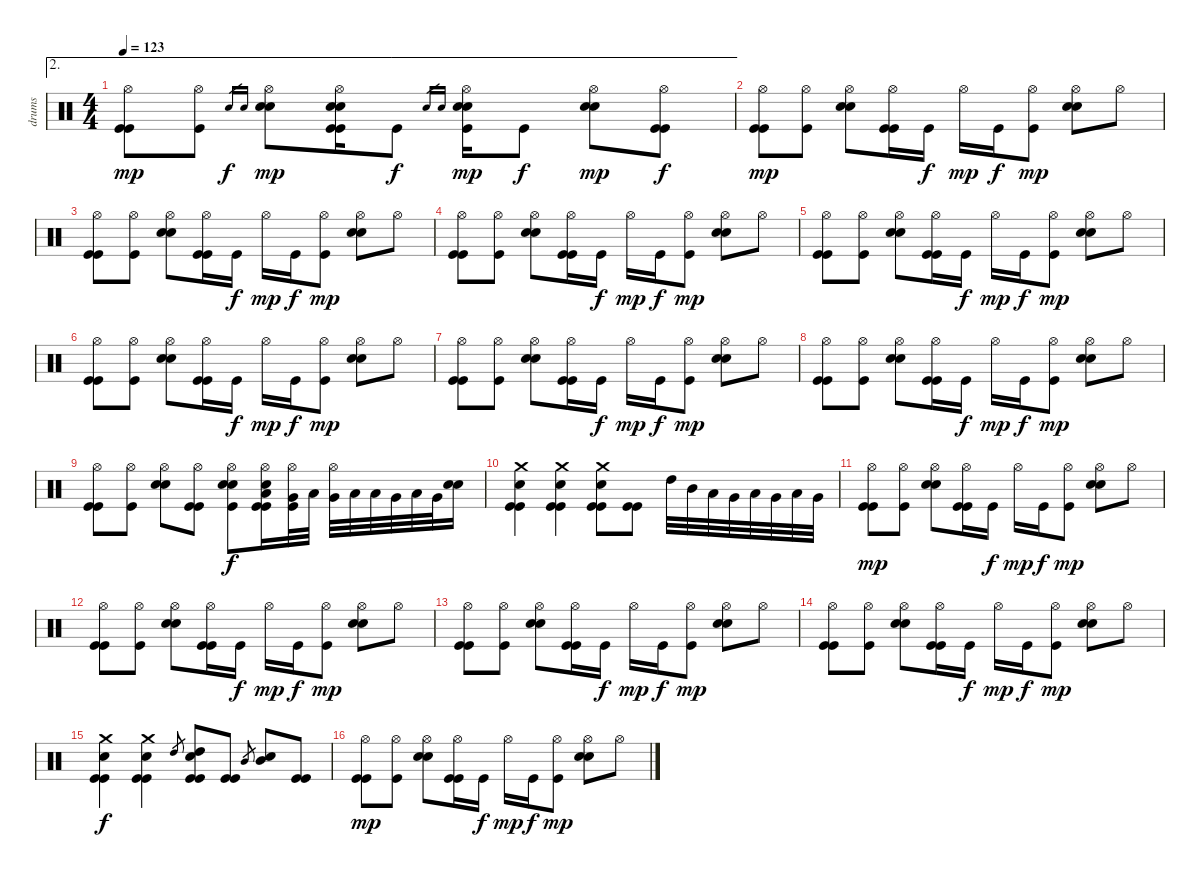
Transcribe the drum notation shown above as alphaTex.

\track ("drums" "drums") {instrument percussion}
\staff {score}
\articulation defaults
\ae 2
\ts (4 4)
\tempo 123
\clef neutral
\ks c
("Hi-Hat (open)" "Kick (hit)" "Kick (hit)").8{dy mp} ("Hi-Hat (open)" "Kick (hit)").8 "Snare (hit) 2".16{gr dy f} "Snare (hit) 2".16{gr} ("Hi-Hat (open)" "Snare (hit) 2" "Snare (hit) 2").8{dy mp} ("Hi-Hat (open)" "Snare (hit) 2" "Snare (hit) 2" "Kick (hit)" "Kick (hit)").16 "Kick (hit)".8{dy f} "Snare (hit) 2".16{gr} "Snare (hit) 2".16{gr} ("Hi-Hat (open)" "Snare (hit) 2" "Snare (hit) 2" "Kick (hit)").16{dy mp} "Kick (hit)".8{dy f} ("Hi-Hat (open)" "Snare (hit) 2" "Snare (hit) 2").8{dy mp} ("Hi-Hat (open)" "Kick (hit)" "Kick (hit)").8{dy f} |
("Hi-Hat (open)" "Kick (hit)" "Kick (hit)").8{dy mp} ("Hi-Hat (open)" "Kick (hit)").8 ("Hi-Hat (open)" "Snare (hit) 2" "Snare (hit) 2").8 ("Hi-Hat (open)" "Kick (hit)" "Kick (hit)").16 "Kick (hit)".16{dy f} "Hi-Hat (open)".16{dy mp} "Kick (hit)".16{dy f} ("Hi-Hat (open)" "Kick (hit)").8{dy mp} ("Hi-Hat (open)" "Snare (hit) 2" "Snare (hit) 2").8 "Hi-Hat (open)".8 |
("Hi-Hat (open)" "Kick (hit)" "Kick (hit)").8 ("Hi-Hat (open)" "Kick (hit)").8 ("Hi-Hat (open)" "Snare (hit) 2" "Snare (hit) 2").8 ("Hi-Hat (open)" "Kick (hit)" "Kick (hit)").16 "Kick (hit)".16{dy f} "Hi-Hat (open)".16{dy mp} "Kick (hit)".16{dy f} ("Hi-Hat (open)" "Kick (hit)").8{dy mp} ("Hi-Hat (open)" "Snare (hit) 2" "Snare (hit) 2").8 "Hi-Hat (open)".8 |
("Hi-Hat (open)" "Kick (hit)" "Kick (hit)").8 ("Hi-Hat (open)" "Kick (hit)").8 ("Hi-Hat (open)" "Snare (hit) 2" "Snare (hit) 2").8 ("Hi-Hat (open)" "Kick (hit)" "Kick (hit)").16 "Kick (hit)".16{dy f} "Hi-Hat (open)".16{dy mp} "Kick (hit)".16{dy f} ("Hi-Hat (open)" "Kick (hit)").8{dy mp} ("Hi-Hat (open)" "Snare (hit) 2" "Snare (hit) 2").8 "Hi-Hat (open)".8 |
("Hi-Hat (open)" "Kick (hit)" "Kick (hit)").8 ("Hi-Hat (open)" "Kick (hit)").8 ("Hi-Hat (open)" "Snare (hit) 2" "Snare (hit) 2").8 ("Hi-Hat (open)" "Kick (hit)" "Kick (hit)").16 "Kick (hit)".16{dy f} "Hi-Hat (open)".16{dy mp} "Kick (hit)".16{dy f} ("Hi-Hat (open)" "Kick (hit)").8{dy mp} ("Hi-Hat (open)" "Snare (hit) 2" "Snare (hit) 2").8 "Hi-Hat (open)".8 |
("Hi-Hat (open)" "Kick (hit)" "Kick (hit)").8 ("Hi-Hat (open)" "Kick (hit)").8 ("Hi-Hat (open)" "Snare (hit) 2" "Snare (hit) 2").8 ("Hi-Hat (open)" "Kick (hit)" "Kick (hit)").16 "Kick (hit)".16{dy f} "Hi-Hat (open)".16{dy mp} "Kick (hit)".16{dy f} ("Hi-Hat (open)" "Kick (hit)").8{dy mp} ("Hi-Hat (open)" "Snare (hit) 2" "Snare (hit) 2").8 "Hi-Hat (open)".8 |
("Hi-Hat (open)" "Kick (hit)" "Kick (hit)").8 ("Hi-Hat (open)" "Kick (hit)").8 ("Hi-Hat (open)" "Snare (hit) 2" "Snare (hit) 2").8 ("Hi-Hat (open)" "Kick (hit)" "Kick (hit)").16 "Kick (hit)".16{dy f} "Hi-Hat (open)".16{dy mp} "Kick (hit)".16{dy f} ("Hi-Hat (open)" "Kick (hit)").8{dy mp} ("Hi-Hat (open)" "Snare (hit) 2" "Snare (hit) 2").8 "Hi-Hat (open)".8 |
("Hi-Hat (open)" "Kick (hit)" "Kick (hit)").8 ("Hi-Hat (open)" "Kick (hit)").8 ("Hi-Hat (open)" "Snare (hit) 2" "Snare (hit) 2").8 ("Hi-Hat (open)" "Kick (hit)" "Kick (hit)").16 "Kick (hit)".16{dy f} "Hi-Hat (open)".16{dy mp} "Kick (hit)".16{dy f} ("Hi-Hat (open)" "Kick (hit)").8{dy mp} ("Hi-Hat (open)" "Snare (hit) 2" "Snare (hit) 2").8 "Hi-Hat (open)".8 |
("Hi-Hat (open)" "Kick (hit)" "Kick (hit)").8 ("Hi-Hat (open)" "Kick (hit)").8 ("Hi-Hat (open)" "Snare (hit) 2" "Snare (hit) 2").8 ("Hi-Hat (open)" "Kick (hit)" "Kick (hit)").8 ("Hi-Hat (open)" "Snare (hit) 2" "Snare (hit) 2" "Kick (hit)").8{dy f} ("Hi-Hat (open)" "Snare (hit) 2" "Low Floor Tom (hit)" "Kick (hit)" "Kick (hit)").16 ("Hi-Hat (open)" "Very Low Tom (hit)" "Kick (hit)").32 "Low Tom (hit)".32 ("Hi-Hat (open)" "Very Low Tom (hit)").32 "Low Floor Tom (hit)".32 "Low Tom (hit)".32 "Very Low Tom (hit)".32 "Low Floor Tom (hit)".32 "Very Low Tom (hit)".32 ("Snare (hit) 2" "Snare (hit) 2").16 |
("Crash medium (hit)" "Snare (hit) 2" "Kick (hit)" "Kick (hit)").4 ("Crash medium (hit)" "Snare (hit) 2" "Kick (hit)" "Kick (hit)").4 ("Crash medium (hit)" "Snare (hit) 2" "Kick (hit)" "Kick (hit)").8 ("Kick (hit)" "Kick (hit)").8 "High Tom (hit)".32 "Mid Tom (hit)".32 "Low Tom (hit)".32 "Very Low Tom (hit)".32 "Low Tom (hit)".32 "Very Low Tom (hit)".32 "Low Floor Tom (hit)".32 "Very Low Tom (hit)".32 |
("Hi-Hat (open)" "Kick (hit)" "Kick (hit)").8{dy mp} ("Hi-Hat (open)" "Kick (hit)").8 ("Hi-Hat (open)" "Snare (hit) 2" "Snare (hit) 2").8 ("Hi-Hat (open)" "Kick (hit)" "Kick (hit)").16 "Kick (hit)".16{dy f} "Hi-Hat (open)".16{dy mp} "Kick (hit)".16{dy f} ("Hi-Hat (open)" "Kick (hit)").8{dy mp} ("Hi-Hat (open)" "Snare (hit) 2" "Snare (hit) 2").8 "Hi-Hat (open)".8 |
("Hi-Hat (open)" "Kick (hit)" "Kick (hit)").8 ("Hi-Hat (open)" "Kick (hit)").8 ("Hi-Hat (open)" "Snare (hit) 2" "Snare (hit) 2").8 ("Hi-Hat (open)" "Kick (hit)" "Kick (hit)").16 "Kick (hit)".16{dy f} "Hi-Hat (open)".16{dy mp} "Kick (hit)".16{dy f} ("Hi-Hat (open)" "Kick (hit)").8{dy mp} ("Hi-Hat (open)" "Snare (hit) 2" "Snare (hit) 2").8 "Hi-Hat (open)".8 |
("Hi-Hat (open)" "Kick (hit)" "Kick (hit)").8 ("Hi-Hat (open)" "Kick (hit)").8 ("Hi-Hat (open)" "Snare (hit) 2" "Snare (hit) 2").8 ("Hi-Hat (open)" "Kick (hit)" "Kick (hit)").16 "Kick (hit)".16{dy f} "Hi-Hat (open)".16{dy mp} "Kick (hit)".16{dy f} ("Hi-Hat (open)" "Kick (hit)").8{dy mp} ("Hi-Hat (open)" "Snare (hit) 2" "Snare (hit) 2").8 "Hi-Hat (open)".8 |
("Hi-Hat (open)" "Kick (hit)" "Kick (hit)").8 ("Hi-Hat (open)" "Kick (hit)").8 ("Hi-Hat (open)" "Snare (hit) 2" "Snare (hit) 2").8 ("Hi-Hat (open)" "Kick (hit)" "Kick (hit)").16 "Kick (hit)".16{dy f} "Hi-Hat (open)".16{dy mp} "Kick (hit)".16{dy f} ("Hi-Hat (open)" "Kick (hit)").8{dy mp} ("Hi-Hat (open)" "Snare (hit) 2" "Snare (hit) 2").8 "Hi-Hat (open)".8 |
("Crash medium (hit)" "Snare (hit) 2" "Kick (hit)" "Kick (hit)").4{dy f} ("Crash medium (hit)" "Snare (hit) 2" "Kick (hit)" "Kick (hit)").4 "High Tom (hit)".8{gr} ("Snare (hit) 2" "High Tom (hit)" "Kick (hit)" "Kick (hit)").8 ("Kick (hit)" "Kick (hit)").8 "Mid Tom (hit)".8{gr} ("Snare (hit) 2" "Mid Tom (hit)").8 ("Kick (hit)" "Kick (hit)").8 |
("Hi-Hat (open)" "Kick (hit)" "Kick (hit)").8{dy mp} ("Hi-Hat (open)" "Kick (hit)").8 ("Hi-Hat (open)" "Snare (hit) 2" "Snare (hit) 2").8 ("Hi-Hat (open)" "Kick (hit)" "Kick (hit)").16 "Kick (hit)".16{dy f} "Hi-Hat (open)".16{dy mp} "Kick (hit)".16{dy f} ("Hi-Hat (open)" "Kick (hit)").8{dy mp} ("Hi-Hat (open)" "Snare (hit) 2" "Snare (hit) 2").8 "Hi-Hat (open)".8
